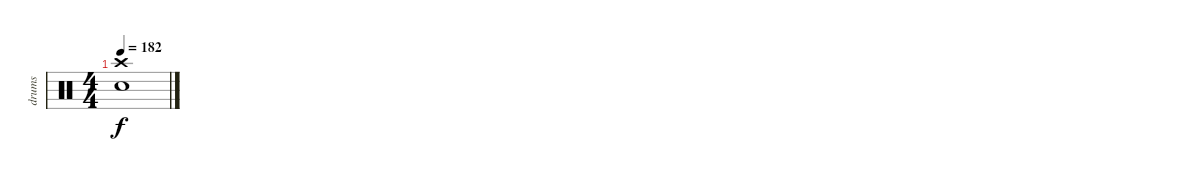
\track ("drums" "drums") {instrument percussion}
\staff {score}
\articulation defaults
\ts (4 4)
\tempo 182
\clef neutral
\ks c
("Electric Snare (hit)" "Crash high (hit)").1{dy f}
